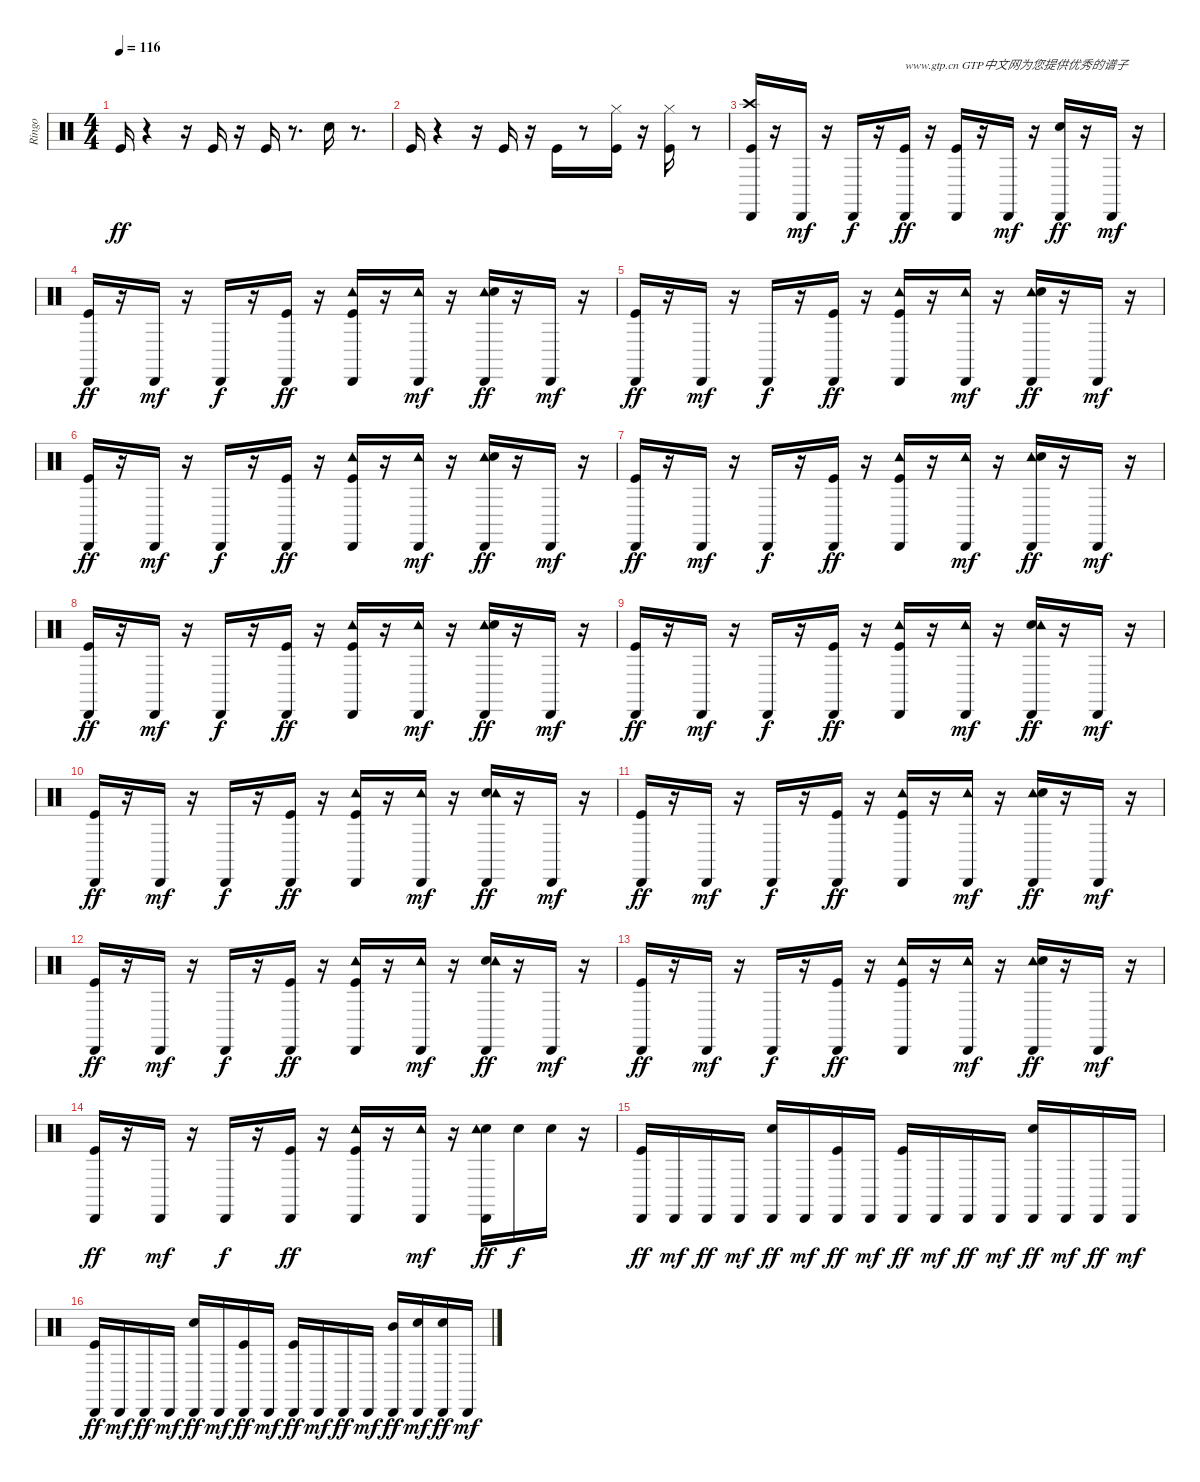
\track ("Ringo" "Ringo") {instrument percussion}
\staff {score}
\articulation defaults
\ts (4 4)
\tempo 116
\clef neutral
\ks c "Kick (hit)".16{dy ff}
r.4 r.16 "Kick (hit)".16 r.16 "Kick (hit)".16 r.8{d} "Snare (hit) 2".16 r.8{d} |
"Kick (hit)".16 r.4 r.16 "Kick (hit)".16 r.16 "Kick (hit)".16 r.8 ("Hi-Hat (closed)" "Kick (hit)").16 r.16 ("Hi-Hat (closed)" "Kick (hit)").16 r.8 |
("Cabasa (hit)" "Crash high (hit)" "Kick (hit)").16 r.16 "Cabasa (hit)".16{dy mf} r.16 "Cabasa (hit)".16{dy f} r.16 ("Cabasa (hit)" "Kick (hit)").16{txt "www.gtp.cn GTP中文网为您提供优秀的谱子" dy ff} r.16 ("Cabasa (hit)" "Kick (hit)").16 r.16 "Cabasa (hit)".16{dy mf} r.16 ("Cabasa (hit)" "Snare (hit) 2").16{dy ff} r.16 "Cabasa (hit)".16{dy mf} r.16 |
("Cabasa (hit)" "Kick (hit)").16{dy ff} r.16 "Cabasa (hit)".16{dy mf} r.16 "Cabasa (hit)".16{dy f} r.16 ("Cabasa (hit)" "Kick (hit)").16{dy ff} r.16 ("Cabasa (hit)" "Tambourine (hit)" "Kick (hit)").16 r.16 ("Cabasa (hit)" "Tambourine (hit)").16{dy mf} r.16 ("Cabasa (hit)" "Tambourine (hit)" "Snare (hit) 2").16{dy ff} r.16 "Cabasa (hit)".16{dy mf} r.16 |
("Cabasa (hit)" "Kick (hit)").16{dy ff} r.16 "Cabasa (hit)".16{dy mf} r.16 "Cabasa (hit)".16{dy f} r.16 ("Cabasa (hit)" "Kick (hit)").16{dy ff} r.16 ("Cabasa (hit)" "Kick (hit)" "Tambourine (hit)").16 r.16 ("Cabasa (hit)" "Tambourine (hit)").16{dy mf} r.16 ("Cabasa (hit)" "Tambourine (hit)" "Snare (hit) 2").16{dy ff} r.16 "Cabasa (hit)".16{dy mf} r.16 |
("Cabasa (hit)" "Kick (hit)").16{dy ff} r.16 "Cabasa (hit)".16{dy mf} r.16 "Cabasa (hit)".16{dy f} r.16 ("Cabasa (hit)" "Kick (hit)").16{dy ff} r.16 ("Cabasa (hit)" "Kick (hit)" "Tambourine (hit)").16 r.16 ("Cabasa (hit)" "Tambourine (hit)").16{dy mf} r.16 ("Cabasa (hit)" "Tambourine (hit)" "Snare (hit) 2").16{dy ff} r.16 "Cabasa (hit)".16{dy mf} r.16 |
("Cabasa (hit)" "Kick (hit)").16{dy ff} r.16 "Cabasa (hit)".16{dy mf} r.16 "Cabasa (hit)".16{dy f} r.16 ("Cabasa (hit)" "Kick (hit)").16{dy ff} r.16 ("Cabasa (hit)" "Kick (hit)" "Tambourine (hit)").16 r.16 ("Cabasa (hit)" "Tambourine (hit)").16{dy mf} r.16 ("Cabasa (hit)" "Tambourine (hit)" "Snare (hit) 2").16{dy ff} r.16 "Cabasa (hit)".16{dy mf} r.16 |
("Cabasa (hit)" "Kick (hit)").16{dy ff} r.16 "Cabasa (hit)".16{dy mf} r.16 "Cabasa (hit)".16{dy f} r.16 ("Cabasa (hit)" "Kick (hit)").16{dy ff} r.16 ("Cabasa (hit)" "Tambourine (hit)" "Kick (hit)").16 r.16 ("Cabasa (hit)" "Tambourine (hit)").16{dy mf} r.16 ("Cabasa (hit)" "Tambourine (hit)" "Snare (hit) 2").16{dy ff} r.16 "Cabasa (hit)".16{dy mf} r.16 |
("Cabasa (hit)" "Kick (hit)").16{dy ff} r.16 "Cabasa (hit)".16{dy mf} r.16 "Cabasa (hit)".16{dy f} r.16 ("Cabasa (hit)" "Kick (hit)").16{dy ff} r.16 ("Cabasa (hit)" "Tambourine (hit)" "Kick (hit)").16 r.16 ("Cabasa (hit)" "Tambourine (hit)").16{dy mf} r.16 ("Cabasa (hit)" "Snare (hit) 2" "Tambourine (hit)").16{dy ff} r.16 "Cabasa (hit)".16{dy mf} r.16 |
("Cabasa (hit)" "Kick (hit)").16{dy ff} r.16 "Cabasa (hit)".16{dy mf} r.16 "Cabasa (hit)".16{dy f} r.16 ("Cabasa (hit)" "Kick (hit)").16{dy ff} r.16 ("Cabasa (hit)" "Tambourine (hit)" "Kick (hit)").16 r.16 ("Cabasa (hit)" "Tambourine (hit)").16{dy mf} r.16 ("Cabasa (hit)" "Snare (hit) 2" "Tambourine (hit)").16{dy ff} r.16 "Cabasa (hit)".16{dy mf} r.16 |
("Cabasa (hit)" "Kick (hit)").16{dy ff} r.16 "Cabasa (hit)".16{dy mf} r.16 "Cabasa (hit)".16{dy f} r.16 ("Cabasa (hit)" "Kick (hit)").16{dy ff} r.16 ("Cabasa (hit)" "Kick (hit)" "Tambourine (hit)").16 r.16 ("Cabasa (hit)" "Tambourine (hit)").16{dy mf} r.16 ("Cabasa (hit)" "Tambourine (hit)" "Snare (hit) 2").16{dy ff} r.16 "Cabasa (hit)".16{dy mf} r.16 |
("Cabasa (hit)" "Kick (hit)").16{dy ff} r.16 "Cabasa (hit)".16{dy mf} r.16 "Cabasa (hit)".16{dy f} r.16 ("Cabasa (hit)" "Kick (hit)").16{dy ff} r.16 ("Cabasa (hit)" "Tambourine (hit)" "Kick (hit)").16 r.16 ("Cabasa (hit)" "Tambourine (hit)").16{dy mf} r.16 ("Cabasa (hit)" "Snare (hit) 2" "Tambourine (hit)").16{dy ff} r.16 "Cabasa (hit)".16{dy mf} r.16 |
("Cabasa (hit)" "Kick (hit)").16{dy ff} r.16 "Cabasa (hit)".16{dy mf} r.16 "Cabasa (hit)".16{dy f} r.16 ("Cabasa (hit)" "Kick (hit)").16{dy ff} r.16 ("Cabasa (hit)" "Kick (hit)" "Tambourine (hit)").16 r.16 ("Cabasa (hit)" "Tambourine (hit)").16{dy mf} r.16 ("Cabasa (hit)" "Tambourine (hit)" "Snare (hit) 2").16{dy ff} r.16 "Cabasa (hit)".16{dy mf} r.16 |
("Cabasa (hit)" "Kick (hit)").16{dy ff} r.16 "Cabasa (hit)".16{dy mf} r.16 "Cabasa (hit)".16{dy f} r.16 ("Cabasa (hit)" "Kick (hit)").16{dy ff} r.16 ("Cabasa (hit)" "Tambourine (hit)" "Kick (hit)").16 r.16 ("Cabasa (hit)" "Tambourine (hit)").16{dy mf} r.16 ("Cabasa (hit)" "Snare (hit) 2" "Tambourine (hit)").16{dy ff} "Snare (hit) 2".16{dy f} "Snare (hit) 2".16 r.16 |
("Cabasa (hit)" "Kick (hit)").16{dy ff} "Cabasa (hit)".16{dy mf} "Cabasa (hit)".16{dy ff} "Cabasa (hit)".16{dy mf} ("Cabasa (hit)" "Snare (hit) 2").16{dy ff} "Cabasa (hit)".16{dy mf} ("Cabasa (hit)" "Kick (hit)").16{dy ff} "Cabasa (hit)".16{dy mf} ("Cabasa (hit)" "Kick (hit)").16{dy ff} "Cabasa (hit)".16{dy mf} "Cabasa (hit)".16{dy ff} "Cabasa (hit)".16{dy mf} ("Cabasa (hit)" "Snare (hit) 2").16{dy ff} "Cabasa (hit)".16{dy mf} "Cabasa (hit)".16{dy ff} "Cabasa (hit)".16{dy mf} |
("Cabasa (hit)" "Kick (hit)").16{dy ff} "Cabasa (hit)".16{dy mf} "Cabasa (hit)".16{dy ff} "Cabasa (hit)".16{dy mf} ("Cabasa (hit)" "Snare (hit) 2").16{dy ff} "Cabasa (hit)".16{dy mf} ("Cabasa (hit)" "Kick (hit)").16{dy ff} "Cabasa (hit)".16{dy mf} ("Cabasa (hit)" "Kick (hit)").16{dy ff} "Cabasa (hit)".16{dy mf} "Cabasa (hit)".16{dy ff} "Cabasa (hit)".16{dy mf} ("Cabasa (hit)" "Mid Tom (hit)").16{dy ff} ("Cabasa (hit)" "Snare (hit) 2").16{dy mf} ("Cabasa (hit)" "Snare (hit) 2").16{dy ff} "Cabasa (hit)".16{dy mf}
